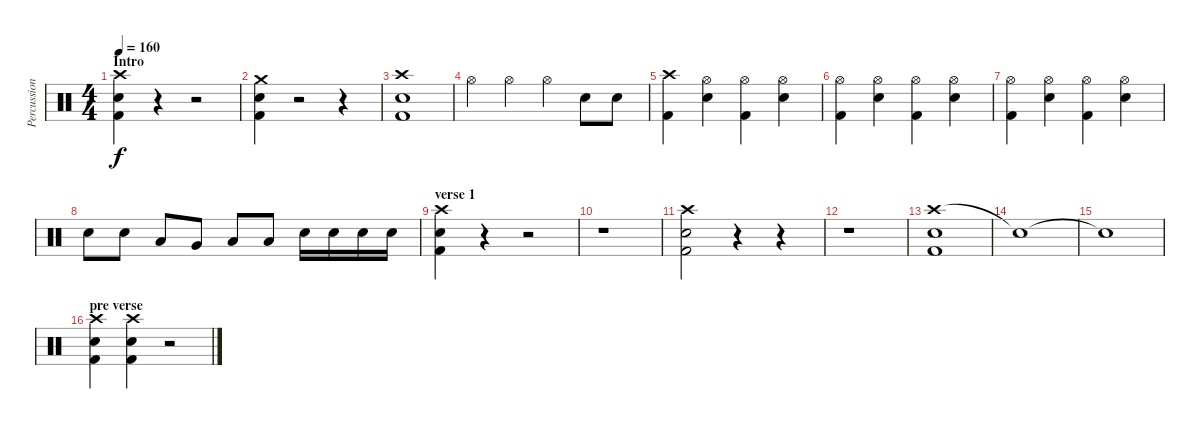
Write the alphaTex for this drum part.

\track ("Percussion" "Percussion") {instrument percussion}
\staff {score}
\articulation defaults
\ts (4 4)
\section ("" "Intro")
\tempo 160
\clef neutral
\ks c
("Crash high (hit)" "Snare (hit) 2" "Kick (hit) 2").4{dy f} r.4 r.2 |
("Crash medium (hit)" "Snare (hit) 2" "Kick (hit) 2").4 r.2 r.4 |
("Crash high (hit)" "Snare (hit) 2" "Kick (hit) 2").1 |
"Hi-Hat (open)".4 "Hi-Hat (open)".4 "Hi-Hat (open)".4 "Snare (hit) 2".8 "Snare (hit) 2".8 |
("Crash high (hit)" "Kick (hit) 2").4 ("Hi-Hat (open)" "Snare (hit) 2").4 ("Hi-Hat (open)" "Kick (hit) 2").4 ("Hi-Hat (open)" "Snare (hit) 2").4 |
("Hi-Hat (open)" "Kick (hit) 2").4 ("Hi-Hat (open)" "Snare (hit) 2").4 ("Hi-Hat (open)" "Kick (hit) 2").4 ("Hi-Hat (open)" "Snare (hit) 2").4 |
("Hi-Hat (open)" "Kick (hit) 2").4 ("Hi-Hat (open)" "Snare (hit) 2").4 ("Hi-Hat (open)" "Kick (hit) 2").4 ("Hi-Hat (open)" "Snare (hit) 2").4 |
"Snare (hit) 2".8 "Snare (hit) 2".8 "Low Floor Tom (hit)".8 "Very Low Tom (hit)".8 "Low Tom (hit)".8 "Low Floor Tom (hit)".8 "Snare (hit) 2".16 "Snare (hit) 2".16 "Snare (hit) 2".16 "Snare (hit) 2".16 |
\section ("" "verse 1")
("Crash high (hit)" "Snare (hit) 2" "Kick (hit) 2").4 r.4 r.2 |
r.1 |
("Crash high (hit)" "Snare (hit) 2" "Kick (hit) 2").2 r.4 r.4 |
r.1 |
("Crash high (hit)" "Snare (hit) 2" "Kick (hit) 2").1 |
"Snare (hit)"{t}.1 |
"Snare (hit)"{t}.1 |
\section ("" "pre verse")
("Crash high (hit)" "Snare (hit) 2" "Kick (hit) 2").4 ("Crash high (hit)" "Snare (hit) 2" "Kick (hit) 2").4 r.2
